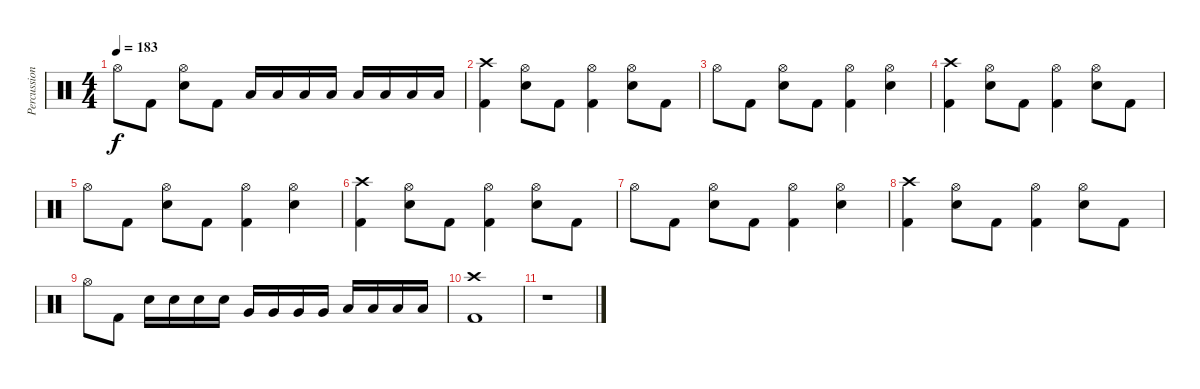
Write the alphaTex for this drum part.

\track ("Percussion" "Percussion") {instrument percussion}
\staff {score}
\articulation defaults
\ts (4 4)
\tempo 183
\clef neutral
\ks c "Hi-Hat (open)".8{dy f} "Kick (hit) 2".8
("Hi-Hat (open)" "Electric Snare (hit)").8 "Kick (hit) 2".8 "Low Floor Tom (hit)".16 "Low Floor Tom (hit)".16 "Low Floor Tom (hit)".16 "Low Floor Tom (hit)".16 "Low Floor Tom (hit)".16 "Low Floor Tom (hit)".16 "Low Floor Tom (hit)".16 "Low Floor Tom (hit)".16 |
("Crash high (hit)" "Kick (hit) 2").4 ("Hi-Hat (open)" "Electric Snare (hit)").8 "Kick (hit) 2".8 ("Hi-Hat (open)" "Kick (hit) 2").4 ("Hi-Hat (open)" "Electric Snare (hit)").8 "Kick (hit) 2".8 |
"Hi-Hat (open)".8 "Kick (hit) 2".8 ("Hi-Hat (open)" "Electric Snare (hit)").8 "Kick (hit) 2".8 ("Hi-Hat (open)" "Kick (hit) 2").4 ("Hi-Hat (open)" "Electric Snare (hit)").4 |
("Crash high (hit)" "Kick (hit) 2").4 ("Hi-Hat (open)" "Electric Snare (hit)").8 "Kick (hit) 2".8 ("Hi-Hat (open)" "Kick (hit) 2").4 ("Hi-Hat (open)" "Electric Snare (hit)").8 "Kick (hit) 2".8 |
"Hi-Hat (open)".8 "Kick (hit) 2".8 ("Hi-Hat (open)" "Electric Snare (hit)").8 "Kick (hit) 2".8 ("Hi-Hat (open)" "Kick (hit) 2").4 ("Hi-Hat (open)" "Electric Snare (hit)").4 |
("Crash high (hit)" "Kick (hit) 2").4 ("Hi-Hat (open)" "Electric Snare (hit)").8 "Kick (hit) 2".8 ("Hi-Hat (open)" "Kick (hit) 2").4 ("Hi-Hat (open)" "Electric Snare (hit)").8 "Kick (hit) 2".8 |
"Hi-Hat (open)".8 "Kick (hit) 2".8 ("Hi-Hat (open)" "Electric Snare (hit)").8 "Kick (hit) 2".8 ("Hi-Hat (open)" "Kick (hit) 2").4 ("Hi-Hat (open)" "Electric Snare (hit)").4 |
("Crash high (hit)" "Kick (hit) 2").4 ("Hi-Hat (open)" "Electric Snare (hit)").8 "Kick (hit) 2".8 ("Hi-Hat (open)" "Kick (hit) 2").4 ("Hi-Hat (open)" "Electric Snare (hit)").8 "Kick (hit) 2".8 |
"Hi-Hat (open)".8 "Kick (hit) 2".8 "Electric Snare (hit)".16 "Electric Snare (hit)".16 "Electric Snare (hit)".16 "Electric Snare (hit)".16 "Very Low Tom (hit)".16 "Very Low Tom (hit)".16 "Very Low Tom (hit)".16 "Very Low Tom (hit)".16 "Low Floor Tom (hit)".16 "Low Floor Tom (hit)".16 "Low Floor Tom (hit)".16 "Low Floor Tom (hit)".16 |
("Crash high (hit)" "Kick (hit) 2").1 |
r.1
